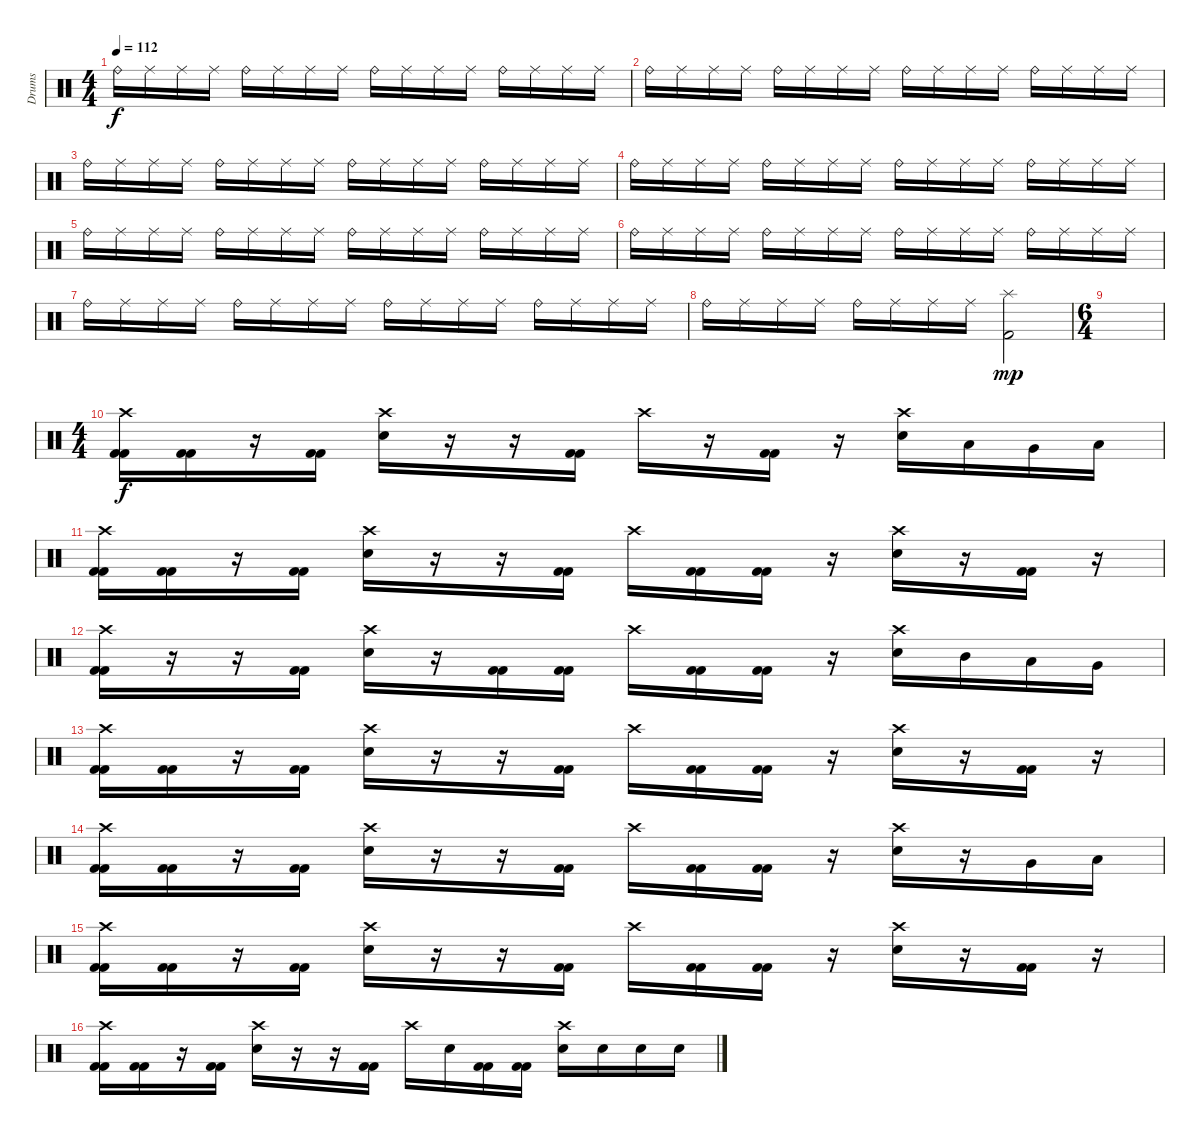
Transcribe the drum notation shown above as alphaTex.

\track ("Drums" "Drums") {instrument percussion}
\staff {score}
\articulation defaults
\ts (4 4)
\tempo 112
\clef neutral
\ks c "Ride (bell)".16{dy f} "Ride (middle)".16 "Ride (middle)".16 "Ride (middle)".16 "Ride (bell)".16 "Ride (middle)".16 "Ride (middle)".16 "Ride (middle)".16 "Ride (bell)".16 "Ride (middle)".16 "Ride (middle)".16 "Ride (middle)".16 "Ride (bell)".16 "Ride (middle)".16 "Ride (middle)".16 "Ride (middle)".16
|
"Ride (bell)".16 "Ride (middle)".16 "Ride (middle)".16 "Ride (middle)".16 "Ride (bell)".16 "Ride (middle)".16 "Ride (middle)".16 "Ride (middle)".16 "Ride (bell)".16 "Ride (middle)".16 "Ride (middle)".16 "Ride (middle)".16 "Ride (bell)".16 "Ride (middle)".16 "Ride (middle)".16 "Ride (middle)".16 |
"Ride (bell)".16 "Ride (middle)".16 "Ride (middle)".16 "Ride (middle)".16 "Ride (bell)".16 "Ride (middle)".16 "Ride (middle)".16 "Ride (middle)".16 "Ride (bell)".16 "Ride (middle)".16 "Ride (middle)".16 "Ride (middle)".16 "Ride (bell)".16 "Ride (middle)".16 "Ride (middle)".16 "Ride (middle)".16 |
"Ride (bell)".16 "Ride (middle)".16 "Ride (middle)".16 "Ride (middle)".16 "Ride (bell)".16 "Ride (middle)".16 "Ride (middle)".16 "Ride (middle)".16 "Ride (bell)".16 "Ride (middle)".16 "Ride (middle)".16 "Ride (middle)".16 "Ride (bell)".16 "Ride (middle)".16 "Ride (middle)".16 "Ride (middle)".16 |
"Ride (bell)".16 "Ride (middle)".16 "Ride (middle)".16 "Ride (middle)".16 "Ride (bell)".16 "Ride (middle)".16 "Ride (middle)".16 "Ride (middle)".16 "Ride (bell)".16 "Ride (middle)".16 "Ride (middle)".16 "Ride (middle)".16 "Ride (bell)".16 "Ride (middle)".16 "Ride (middle)".16 "Ride (middle)".16 |
"Ride (bell)".16 "Ride (middle)".16 "Ride (middle)".16 "Ride (middle)".16 "Ride (bell)".16 "Ride (middle)".16 "Ride (middle)".16 "Ride (middle)".16 "Ride (bell)".16 "Ride (middle)".16 "Ride (middle)".16 "Ride (middle)".16 "Ride (bell)".16 "Ride (middle)".16 "Ride (middle)".16 "Ride (middle)".16 |
"Ride (bell)".16 "Ride (middle)".16 "Ride (middle)".16 "Ride (middle)".16 "Ride (bell)".16 "Ride (middle)".16 "Ride (middle)".16 "Ride (middle)".16 "Ride (bell)".16 "Ride (middle)".16 "Ride (middle)".16 "Ride (middle)".16 "Ride (bell)".16 "Ride (middle)".16 "Ride (middle)".16 "Ride (middle)".16 |
"Ride (bell)".16 "Ride (middle)".16 "Ride (middle)".16 "Ride (middle)".16 "Ride (bell)".16 "Ride (middle)".16 "Ride (middle)".16 "Ride (middle)".16 ("Splash (hit)" "Kick (hit) 2").2{dy mp} |
\ts (6 4)
|
\ts (4 4)
("Crash high (hit)" "Kick (hit) 2" "Kick (hit) 2").16{dy f} ("Kick (hit) 2" "Kick (hit) 2").16 r.16 ("Kick (hit) 2" "Kick (hit) 2").16 ("Crash high (hit)" "Electric Snare (hit)").16 r.16 r.16 ("Kick (hit) 2" "Kick (hit) 2").16 "Crash high (hit)".16 r.16 ("Kick (hit) 2" "Kick (hit) 2").16 r.16 ("Crash high (hit)" "Electric Snare (hit)").16 "Low Tom (hit)".16 "Very Low Tom (hit)".16 "Low Floor Tom (hit)".16 |
("Crash high (hit)" "Kick (hit) 2" "Kick (hit) 2").16 ("Kick (hit) 2" "Kick (hit) 2").16 r.16 ("Kick (hit) 2" "Kick (hit) 2").16 ("Crash high (hit)" "Electric Snare (hit)").16 r.16 r.16 ("Kick (hit) 2" "Kick (hit) 2").16 "Crash high (hit)".16 ("Kick (hit) 2" "Kick (hit) 2").16 ("Kick (hit) 2" "Kick (hit) 2").16 r.16 ("Crash high (hit)" "Electric Snare (hit)").16 r.16 ("Kick (hit) 2" "Kick (hit) 2").16 r.16 |
("Crash high (hit)" "Kick (hit) 2" "Kick (hit) 2").16 r.16 r.16 ("Kick (hit) 2" "Kick (hit) 2").16 ("Crash high (hit)" "Electric Snare (hit)").16 r.16 ("Kick (hit) 2" "Kick (hit) 2").16 ("Kick (hit) 2" "Kick (hit) 2").16 "Crash high (hit)".16 ("Kick (hit) 2" "Kick (hit) 2").16 ("Kick (hit) 2" "Kick (hit) 2").16 r.16 ("Crash high (hit)" "Electric Snare (hit)").16 "Mid Tom (hit)".16 "Low Tom (hit)".16 "Very Low Tom (hit)".16 |
("Crash high (hit)" "Kick (hit) 2" "Kick (hit) 2").16 ("Kick (hit) 2" "Kick (hit) 2").16 r.16 ("Kick (hit) 2" "Kick (hit) 2").16 ("Crash high (hit)" "Electric Snare (hit)").16 r.16 r.16 ("Kick (hit) 2" "Kick (hit) 2").16 "Crash high (hit)".16 ("Kick (hit) 2" "Kick (hit) 2").16 ("Kick (hit) 2" "Kick (hit) 2").16 r.16 ("Crash high (hit)" "Electric Snare (hit)").16 r.16 ("Kick (hit) 2" "Kick (hit) 2").16 r.16 |
("Crash high (hit)" "Kick (hit) 2" "Kick (hit) 2").16 ("Kick (hit) 2" "Kick (hit) 2").16 r.16 ("Kick (hit) 2" "Kick (hit) 2").16 ("Crash high (hit)" "Electric Snare (hit)").16 r.16 r.16 ("Kick (hit) 2" "Kick (hit) 2").16 "Crash high (hit)".16 ("Kick (hit) 2" "Kick (hit) 2").16 ("Kick (hit) 2" "Kick (hit) 2").16 r.16 ("Crash high (hit)" "Electric Snare (hit)").16 r.16 "Very Low Tom (hit)".16 "Low Floor Tom (hit)".16 |
("Crash high (hit)" "Kick (hit) 2" "Kick (hit) 2").16 ("Kick (hit) 2" "Kick (hit) 2").16 r.16 ("Kick (hit) 2" "Kick (hit) 2").16 ("Crash high (hit)" "Electric Snare (hit)").16 r.16 r.16 ("Kick (hit) 2" "Kick (hit) 2").16 "Crash high (hit)".16 ("Kick (hit) 2" "Kick (hit) 2").16 ("Kick (hit) 2" "Kick (hit) 2").16 r.16 ("Crash high (hit)" "Electric Snare (hit)").16 r.16 ("Kick (hit) 2" "Kick (hit) 2").16 r.16 |
("Crash high (hit)" "Kick (hit) 2" "Kick (hit) 2").16 ("Kick (hit) 2" "Kick (hit) 2").16 r.16 ("Kick (hit) 2" "Kick (hit) 2").16 ("Crash high (hit)" "Electric Snare (hit)").16 r.16 r.16 ("Kick (hit) 2" "Kick (hit) 2").16 "Crash high (hit)".16 "Electric Snare (hit)".16 ("Kick (hit) 2" "Kick (hit) 2").16 ("Kick (hit) 2" "Kick (hit) 2").16 ("Crash high (hit)" "Electric Snare (hit)").16 "Electric Snare (hit)".16 "Electric Snare (hit)".16 "Electric Snare (hit)".16
